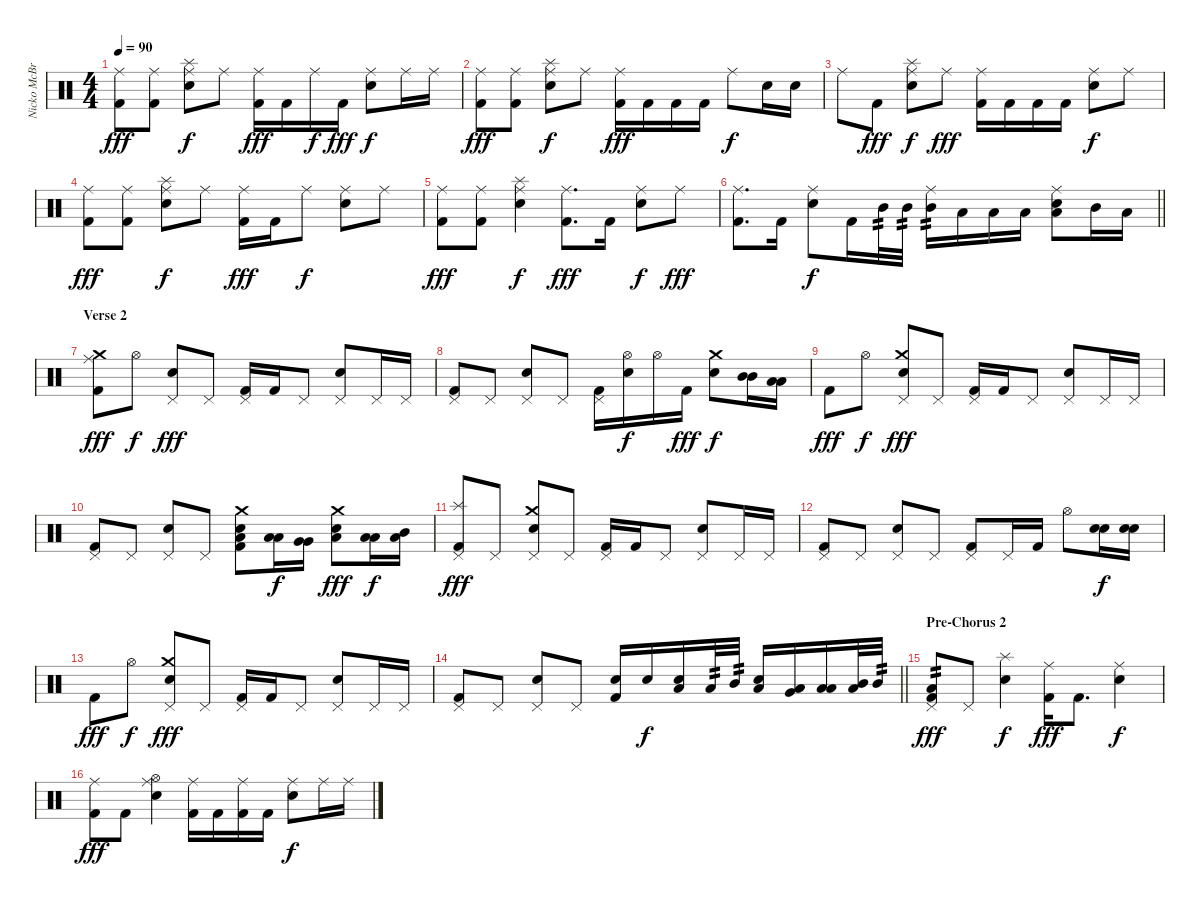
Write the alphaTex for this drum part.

\track ("Nicko McBrain" "Nicko McBr") {instrument percussion}
\staff {score}
\articulation defaults
\ts (4 4)
\tempo 90
\clef neutral
\ks c
("Ride (middle)" "Kick (hit) 2").8{dy fff} ("Ride (middle)" "Kick (hit) 2").8 ("Snare (hit) 2" "Splash (hit)" "Ride (middle)").8{dy f} "Ride (middle)".8 ("Ride (middle)" "Kick (hit) 2").16{dy fff} "Kick (hit) 2".16 "Ride (middle)".16{dy f} "Kick (hit) 2".16{dy fff} ("Snare (hit) 2" "Ride (middle)").8{dy f} "Ride (middle)".16 "Ride (middle)".16 |
("Ride (middle)" "Kick (hit) 2").8{dy fff} ("Ride (middle)" "Kick (hit) 2").8 ("Snare (hit) 2" "Splash (hit)" "Ride (middle)").8{dy f} "Ride (middle)".8 ("Ride (middle)" "Kick (hit) 2").16{dy fff} "Kick (hit) 2".16 "Kick (hit) 2".16 "Kick (hit) 2".16 "Ride (middle)".8{dy f} "Snare (hit) 2".16 "Snare (hit) 2".16 |
"Ride (middle)".8 "Kick (hit) 2".8{dy fff} ("Snare (hit) 2" "Splash (hit)" "Ride (middle)").8{dy f} "Ride (middle)".8{dy fff} ("Ride (middle)" "Kick (hit) 2").16 "Kick (hit) 2".16 "Kick (hit) 2".16 "Kick (hit) 2".16 ("Snare (hit) 2" "Ride (middle)").8{dy f} "Ride (middle)".8 |
("Ride (middle)" "Kick (hit) 2").8{dy fff} ("Ride (middle)" "Kick (hit) 2").8 ("Snare (hit) 2" "Splash (hit)" "Ride (middle)").8{dy f} "Ride (middle)".8 ("Ride (middle)" "Kick (hit) 2").16{dy fff} "Kick (hit) 2".16 "Ride (middle)".8{dy f} ("Snare (hit) 2" "Ride (middle)").8 "Ride (middle)".8 |
("Ride (middle)" "Kick (hit) 2").8{dy fff} ("Ride (middle)" "Kick (hit) 2").8 ("Snare (hit) 2" "Splash (hit)" "Ride (middle)").4{dy f} ("Ride (middle)" "Kick (hit) 2").8{d dy fff} "Kick (hit) 2".16 ("Snare (hit) 2" "Ride (middle)").8{dy f} "Ride (middle)".8{dy fff} |
\barLineRight lightlight
("Ride (middle)" "Kick (hit) 2").8{d} "Kick (hit) 2".16 ("Snare (hit) 2" "Ride (middle)").8{dy f} "Kick (hit) 2".16 "Mid Tom (hit)".32{tp 2} "Mid Tom (hit)".32{tp 2} ("Mid Tom (hit)" "Ride (middle)").16{tp 2} "Low Tom (hit)".16 "Low Tom (hit)".16 "Low Tom (hit)".16 ("Snare (hit) 2" "Low Tom (hit)" "Ride (middle)").8 "Mid Tom (hit)".16 "Low Tom (hit)".16 |
\section ("" "Verse 2")
("Crash medium (hit)" "Ride (middle)" "Kick (hit) 2").8{dy fff} "Hi-Hat (open)".8{dy f} ("Snare (hit) 2" "Pedal Hi-Hat (hit)").8{dy fff} "Pedal Hi-Hat (hit)".8 ("Pedal Hi-Hat (hit)" "Kick (hit) 2").16 "Kick (hit) 2".16 "Pedal Hi-Hat (hit)".8 ("Snare (hit) 2" "Pedal Hi-Hat (hit)").8 "Pedal Hi-Hat (hit)".16 "Pedal Hi-Hat (hit)".16 |
("Pedal Hi-Hat (hit)" "Kick (hit) 2").8 "Pedal Hi-Hat (hit)".8 ("Snare (hit) 2" "Pedal Hi-Hat (hit)").8 "Pedal Hi-Hat (hit)".8 ("Pedal Hi-Hat (hit)" "Kick (hit) 2").16 ("Snare (hit) 2" "Hi-Hat (open)").16{dy f} "Hi-Hat (open)".16 "Kick (hit) 2".16{dy fff} ("Snare (hit) 2" "Crash medium (hit)").8{dy f} ("Mid Tom (hit)" "Mid Tom (hit)").16 ("Low Tom (hit)" "Low Tom (hit)").16 |
"Kick (hit) 2".8{dy fff} "Hi-Hat (open)".8{dy f} ("Snare (hit) 2" "Crash medium (hit)" "Pedal Hi-Hat (hit)").8{dy fff} "Pedal Hi-Hat (hit)".8 ("Pedal Hi-Hat (hit)" "Kick (hit) 2").16 "Kick (hit) 2".16 "Pedal Hi-Hat (hit)".8 ("Snare (hit) 2" "Pedal Hi-Hat (hit)").8 "Pedal Hi-Hat (hit)".16 "Pedal Hi-Hat (hit)".16 |
("Pedal Hi-Hat (hit)" "Kick (hit) 2").8 "Pedal Hi-Hat (hit)".8 ("Snare (hit) 2" "Pedal Hi-Hat (hit)").8 "Pedal Hi-Hat (hit)".8 ("Snare (hit) 2" "Low Tom (hit)" "Crash medium (hit)" "Kick (hit) 2").8 ("Low Tom (hit)" "Low Tom (hit)").16{dy f} ("Very Low Tom (hit)" "Very Low Tom (hit)").16 ("Snare (hit) 2" "Low Tom (hit)" "Crash medium (hit)").8{dy fff} ("Low Tom (hit)" "Low Tom (hit)").16{dy f} ("Mid Tom (hit)" "Low Tom (hit)").16 |
("Splash (hit)" "Pedal Hi-Hat (hit)" "Kick (hit) 2").8{dy fff} "Pedal Hi-Hat (hit)".8 ("Snare (hit) 2" "Crash medium (hit)" "Pedal Hi-Hat (hit)").8 "Pedal Hi-Hat (hit)".8 ("Pedal Hi-Hat (hit)" "Kick (hit) 2").16 "Kick (hit) 2".16 "Pedal Hi-Hat (hit)".8 ("Snare (hit) 2" "Pedal Hi-Hat (hit)").8 "Pedal Hi-Hat (hit)".16 "Pedal Hi-Hat (hit)".16 |
("Pedal Hi-Hat (hit)" "Kick (hit) 2").8 "Pedal Hi-Hat (hit)".8 ("Snare (hit) 2" "Pedal Hi-Hat (hit)").8 "Pedal Hi-Hat (hit)".8 ("Pedal Hi-Hat (hit)" "Kick (hit) 2").8 "Pedal Hi-Hat (hit)".16 "Kick (hit) 2".16 "Hi-Hat (open)".8 ("Snare (hit) 2" "Snare (hit) 2").16{dy f} ("Snare (hit) 2" "Snare (hit) 2").16 |
"Kick (hit) 2".8{dy fff} "Hi-Hat (open)".8{dy f} ("Snare (hit) 2" "Crash medium (hit)" "Pedal Hi-Hat (hit)").8{dy fff} "Pedal Hi-Hat (hit)".8 ("Pedal Hi-Hat (hit)" "Kick (hit) 2").16 "Kick (hit) 2".16 "Pedal Hi-Hat (hit)".8 ("Snare (hit) 2" "Pedal Hi-Hat (hit)").8 "Pedal Hi-Hat (hit)".16 "Pedal Hi-Hat (hit)".16 |
\barLineRight lightlight
("Pedal Hi-Hat (hit)" "Kick (hit) 2").8 "Pedal Hi-Hat (hit)".8 ("Snare (hit) 2" "Pedal Hi-Hat (hit)").8 "Pedal Hi-Hat (hit)".8 ("Snare (hit) 2" "Kick (hit) 2").16 "Snare (hit) 2".16{dy f} ("Snare (hit) 2" "Low Tom (hit)").16 "Low Tom (hit)".32{tp 2} "Mid Tom (hit)".32{tp 2} ("Snare (hit) 2" "Low Tom (hit)").16 ("Very Low Tom (hit)" "Low Tom (hit)").16 ("Low Tom (hit)" "Low Tom (hit)").16 ("Mid Tom (hit)" "Low Tom (hit)").32 "Mid Tom (hit)".32{tp 2} |
\section ("" "Pre-Chorus 2")
("Low Tom (hit)" "Pedal Hi-Hat (hit)" "Kick (hit) 2").8{tp 2 dy fff} "Pedal Hi-Hat (hit)".8 ("Snare (hit) 2" "Splash (hit)").4{dy f} ("Ride (middle)" "Kick (hit) 2").16{dy fff} "Kick (hit) 2".8{d} ("Snare (hit) 2" "Ride (middle)").4{dy f} |
("Ride (middle)" "Kick (hit) 2").8{dy fff} "Kick (hit) 2".8 ("Snare (hit) 2" "Hi-Hat (open)" "Ride (middle)").4 ("Ride (middle)" "Kick (hit) 2").16 "Kick (hit) 2".16 ("Ride (middle)" "Kick (hit) 2").16 "Kick (hit) 2".16 ("Snare (hit) 2" "Ride (middle)").8{dy f} "Ride (middle)".16 "Ride (middle)".16
